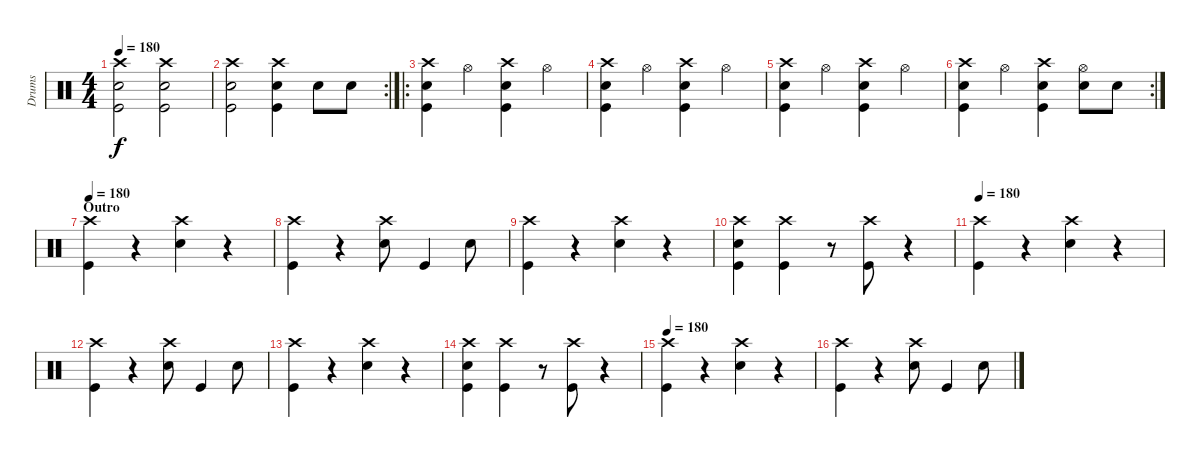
\track ("Drums" "Drums") {instrument percussion}
\staff {score}
\articulation defaults
\ts (4 4)
\tempo 180
\clef neutral
\ks c
("Crash high (hit)" "Snare (hit) 2" "Kick (hit)").2{dy f} ("Crash high (hit)" "Snare (hit) 2" "Kick (hit)").2 |
\rc 2
("Crash high (hit)" "Snare (hit) 2" "Kick (hit)").2 ("Crash high (hit)" "Snare (hit) 2" "Kick (hit)").4 "Snare (hit) 2".8 "Snare (hit) 2".8 |
\ro
("Crash high (hit)" "Snare (hit) 2" "Kick (hit)").4 "Hi-Hat (open)".4 ("Crash high (hit)" "Snare (hit) 2" "Kick (hit)").4 "Hi-Hat (open)".4 |
("Crash high (hit)" "Snare (hit) 2" "Kick (hit)").4 "Hi-Hat (open)".4 ("Crash high (hit)" "Snare (hit) 2" "Kick (hit)").4 "Hi-Hat (open)".4 |
("Crash high (hit)" "Snare (hit) 2" "Kick (hit)").4 "Hi-Hat (open)".4 ("Crash high (hit)" "Snare (hit) 2" "Kick (hit)").4 "Hi-Hat (open)".4 |
\rc 2
("Crash high (hit)" "Snare (hit) 2" "Kick (hit)").4 "Hi-Hat (open)".4 ("Crash high (hit)" "Snare (hit) 2" "Kick (hit)").4 ("Hi-Hat (open)" "Snare (hit) 2").8 "Snare (hit) 2".8 |
\section ("" "Outro")
\tempo 180
("Crash high (hit)" "Kick (hit)").4 r.4 ("Crash high (hit)" "Snare (hit) 2").4 r.4 |
("Crash high (hit)" "Kick (hit)").4 r.4 ("Crash high (hit)" "Snare (hit) 2").8 "Kick (hit)".4 "Snare (hit) 2".8 |
("Crash high (hit)" "Kick (hit)").4 r.4 ("Crash high (hit)" "Snare (hit) 2").4 r.4 |
("Crash high (hit)" "Snare (hit) 2" "Kick (hit)").4 ("Crash high (hit)" "Kick (hit)").4 r.8 ("Crash high (hit)" "Kick (hit)").8 r.4 |
\tempo 180
("Crash high (hit)" "Kick (hit)").4 r.4 ("Crash high (hit)" "Snare (hit) 2").4 r.4 |
("Crash high (hit)" "Kick (hit)").4 r.4 ("Crash high (hit)" "Snare (hit) 2").8 "Kick (hit)".4 "Snare (hit) 2".8 |
("Crash high (hit)" "Kick (hit)").4 r.4 ("Crash high (hit)" "Snare (hit) 2").4 r.4 |
("Crash high (hit)" "Snare (hit) 2" "Kick (hit)").4 ("Crash high (hit)" "Kick (hit)").4 r.8 ("Crash high (hit)" "Kick (hit)").8 r.4 |
\tempo 180
("Crash high (hit)" "Kick (hit)").4 r.4 ("Crash high (hit)" "Snare (hit) 2").4 r.4 |
("Crash high (hit)" "Kick (hit)").4 r.4 ("Crash high (hit)" "Snare (hit) 2").8 "Kick (hit)".4 "Snare (hit) 2".8
